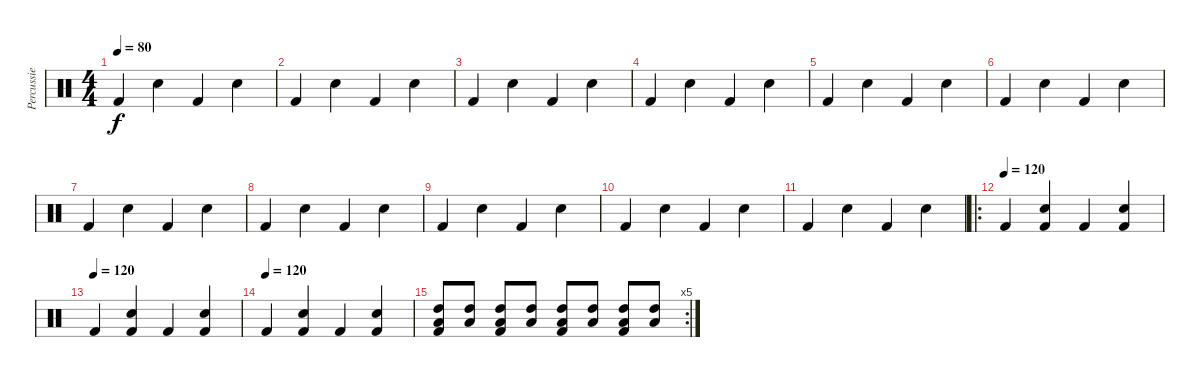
\track ("Percussie" "Percussie") {instrument percussion}
\staff {score}
\articulation defaults
\ts (4 4)
\tempo 80
\clef neutral
\ks c "Kick (hit) 2".4{dy f} "Electric Snare (hit)".4 "Kick (hit) 2".4 "Electric Snare (hit)".4
|
"Kick (hit) 2".4 "Electric Snare (hit)".4 "Kick (hit) 2".4 "Electric Snare (hit)".4 |
"Kick (hit) 2".4 "Electric Snare (hit)".4 "Kick (hit) 2".4 "Electric Snare (hit)".4 |
"Kick (hit) 2".4 "Electric Snare (hit)".4 "Kick (hit) 2".4 "Electric Snare (hit)".4 |
"Kick (hit) 2".4 "Electric Snare (hit)".4 "Kick (hit) 2".4 "Electric Snare (hit)".4 |
"Kick (hit) 2".4 "Electric Snare (hit)".4 "Kick (hit) 2".4 "Electric Snare (hit)".4 |
"Kick (hit) 2".4 "Electric Snare (hit)".4 "Kick (hit) 2".4 "Electric Snare (hit)".4 |
"Kick (hit) 2".4 "Electric Snare (hit)".4 "Kick (hit) 2".4 "Electric Snare (hit)".4 |
"Kick (hit) 2".4 "Electric Snare (hit)".4 "Kick (hit) 2".4 "Electric Snare (hit)".4 |
"Kick (hit) 2".4 "Electric Snare (hit)".4 "Kick (hit) 2".4 "Electric Snare (hit)".4 |
"Kick (hit) 2".4 "Electric Snare (hit)".4 "Kick (hit) 2".4 "Electric Snare (hit)".4 |
\ro
\tempo (120)
"Kick (hit) 2".4 ("Electric Snare (hit)" "Kick (hit) 2").4 "Kick (hit) 2".4 ("Electric Snare (hit)" "Kick (hit) 2").4 |
\tempo (120)
"Kick (hit) 2".4 ("Electric Snare (hit)" "Kick (hit) 2").4 "Kick (hit) 2".4 ("Electric Snare (hit)" "Kick (hit) 2").4 |
\tempo (120)
"Kick (hit) 2".4 ("Electric Snare (hit)" "Kick (hit) 2").4 "Kick (hit) 2".4 ("Electric Snare (hit)" "Kick (hit) 2").4 |
\rc 5
("Low Tom (hit)" "High Tom (hit)" "Kick (hit) 2").8 ("Low Tom (hit)" "High Tom (hit)").8 ("Low Tom (hit)" "High Tom (hit)" "Kick (hit) 2").8 ("Low Tom (hit)" "High Tom (hit)").8 ("Low Tom (hit)" "High Tom (hit)" "Kick (hit) 2").8 ("Low Tom (hit)" "High Tom (hit)").8 ("Low Tom (hit)" "High Tom (hit)" "Kick (hit) 2").8 ("Low Tom (hit)" "High Tom (hit)").8
